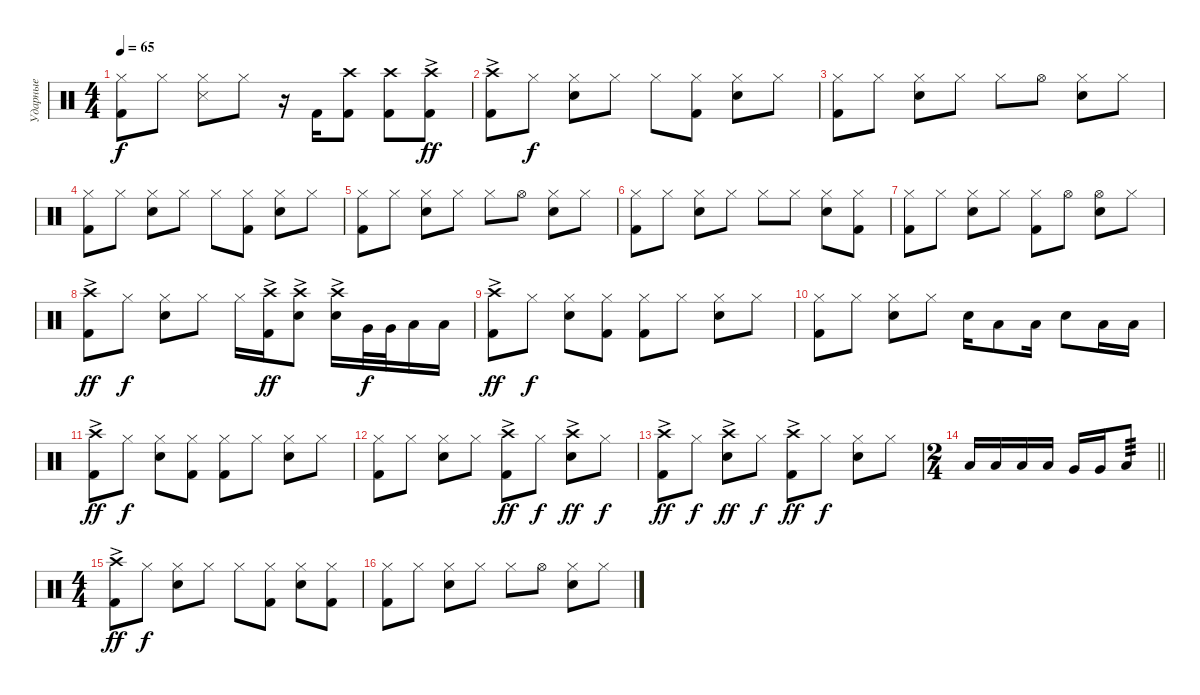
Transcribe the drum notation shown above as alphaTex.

\track ("Ударные" "Ударные") {instrument percussion}
\staff {score}
\articulation defaults
\ts (4 4)
\tempo 65
\clef neutral
\ks c
("Kick (hit) 2" "Hi-Hat (closed)").8{dy f} "Hi-Hat (closed)".8 ("Snare (side stick) 3" "Hi-Hat (closed)").8 "Hi-Hat (closed)".8 r.16 "Kick (hit) 2".16 ("Kick (hit) 2" "Crash high (hit)").8 ("Kick (hit) 2" "Crash high (hit)").8 ("Kick (hit) 2" "Crash high (hit)"{ac}).8{dy ff} |
("Kick (hit) 2" "Crash high (hit)"{ac}).8 "Hi-Hat (closed)".8{dy f} ("Snare (hit) 2" "Hi-Hat (closed)").8 "Hi-Hat (closed)".8 "Hi-Hat (closed)".8 ("Kick (hit) 2" "Hi-Hat (closed)").8 ("Snare (hit) 2" "Hi-Hat (closed)").8 "Hi-Hat (closed)".8 |
("Kick (hit) 2" "Hi-Hat (closed)").8 "Hi-Hat (closed)".8 ("Snare (hit) 2" "Hi-Hat (closed)").8 "Hi-Hat (closed)".8 "Hi-Hat (closed)".8 "Hi-Hat (open)".8 ("Snare (hit) 2" "Hi-Hat (closed)").8 "Hi-Hat (closed)".8 |
("Kick (hit) 2" "Hi-Hat (closed)").8 "Hi-Hat (closed)".8 ("Snare (hit) 2" "Hi-Hat (closed)").8 "Hi-Hat (closed)".8 "Hi-Hat (closed)".8 ("Kick (hit) 2" "Hi-Hat (closed)").8 ("Snare (hit) 2" "Hi-Hat (closed)").8 "Hi-Hat (closed)".8 |
("Kick (hit) 2" "Hi-Hat (closed)").8 "Hi-Hat (closed)".8 ("Snare (hit) 2" "Hi-Hat (closed)").8 "Hi-Hat (closed)".8 "Hi-Hat (closed)".8 "Hi-Hat (open)".8 ("Snare (hit) 2" "Hi-Hat (closed)").8 "Hi-Hat (closed)".8 |
("Kick (hit) 2" "Hi-Hat (closed)").8 "Hi-Hat (closed)".8 ("Snare (hit) 2" "Hi-Hat (closed)").8 "Hi-Hat (closed)".8 "Hi-Hat (closed)".8 "Hi-Hat (closed)".8 ("Snare (hit) 2" "Hi-Hat (closed)").8 ("Kick (hit) 2" "Hi-Hat (closed)").8 |
("Kick (hit) 2" "Hi-Hat (closed)").8 "Hi-Hat (closed)".8 ("Snare (hit) 2" "Hi-Hat (closed)").8 "Hi-Hat (closed)".8 ("Kick (hit) 2" "Hi-Hat (closed)").8 "Hi-Hat (open)".8 ("Snare (hit) 2" "Hi-Hat (open)").8 "Hi-Hat (closed)".8 |
("Kick (hit) 2" "Crash high (hit)"{ac}).8{dy ff} "Hi-Hat (closed)".8{dy f} ("Snare (hit) 2" "Hi-Hat (closed)").8 "Hi-Hat (closed)".8 "Hi-Hat (closed)".16 ("Kick (hit) 2" "Crash high (hit)"{ac}).16{dy ff} ("Snare (hit) 2" "Crash high (hit)"{ac}).8 ("Snare (hit) 2" "Crash high (hit)"{ac}).16 "Very Low Tom (hit)".32{dy f} "Very Low Tom (hit)".32 "Low Floor Tom (hit)".16 "Low Floor Tom (hit)".16 |
("Kick (hit) 2" "Crash high (hit)"{ac}).8{dy ff} "Hi-Hat (closed)".8{dy f} ("Snare (hit) 2" "Hi-Hat (closed)").8 ("Kick (hit) 2" "Hi-Hat (closed)").8 ("Kick (hit) 2" "Hi-Hat (closed)").8 "Hi-Hat (closed)".8 ("Snare (hit) 2" "Hi-Hat (closed)").8 "Hi-Hat (closed)".8 |
("Kick (hit) 2" "Hi-Hat (closed)").8 "Hi-Hat (closed)".8 ("Snare (hit) 2" "Hi-Hat (closed)").8 "Hi-Hat (closed)".8 "Snare (hit) 2".16 "Low Tom (hit)".8 "Low Tom (hit)".16 "Snare (hit) 2".8 "Low Floor Tom (hit)".16 "Low Floor Tom (hit)".16 |
("Kick (hit) 2" "Crash high (hit)"{ac}).8{dy ff} "Hi-Hat (closed)".8{dy f} ("Snare (hit) 2" "Hi-Hat (closed)").8 ("Kick (hit) 2" "Hi-Hat (closed)").8 ("Kick (hit) 2" "Hi-Hat (closed)").8 "Hi-Hat (closed)".8 ("Snare (hit) 2" "Hi-Hat (closed)").8 "Hi-Hat (closed)".8 |
("Kick (hit) 2" "Hi-Hat (closed)").8 "Hi-Hat (closed)".8 ("Snare (hit) 2" "Hi-Hat (closed)").8 "Hi-Hat (closed)".8 ("Kick (hit) 2" "Crash high (hit)"{ac}).8{dy ff} "Hi-Hat (closed)".8{dy f} ("Snare (hit) 2" "Crash high (hit)"{ac}).8{dy ff} "Hi-Hat (closed)".8{dy f} |
("Kick (hit) 2" "Crash high (hit)"{ac}).8{dy ff} "Hi-Hat (closed)".8{dy f} ("Snare (hit) 2" "Crash high (hit)"{ac}).8{dy ff} "Hi-Hat (closed)".8{dy f} ("Kick (hit) 2" "Crash high (hit)"{ac}).8{dy ff} "Hi-Hat (closed)".8{dy f} ("Snare (hit) 2" "Hi-Hat (closed)").8 "Hi-Hat (closed)".8 |
\ts (2 4)
\barLineRight lightlight "Low Tom (hit)".16 "Low Tom (hit)".16 "Low Tom (hit)".16 "Low Tom (hit)".16 "Very Low Tom (hit)".16 "Very Low Tom (hit)".16 "Low Floor Tom (hit)".8{tp 3}
|
\ts (4 4)
("Kick (hit) 2" "Crash high (hit)"{ac}).8{dy ff} "Hi-Hat (closed)".8{dy f} ("Snare (hit) 2" "Hi-Hat (closed)").8 "Hi-Hat (closed)".8 "Hi-Hat (closed)".8 ("Kick (hit) 2" "Hi-Hat (closed)").8 ("Snare (hit) 2" "Hi-Hat (closed)").8 ("Kick (hit) 2" "Hi-Hat (closed)").8 |
("Kick (hit) 2" "Hi-Hat (closed)").8 "Hi-Hat (closed)".8 ("Snare (hit) 2" "Hi-Hat (closed)").8 "Hi-Hat (closed)".8 "Hi-Hat (closed)".8 "Hi-Hat (open)".8 ("Snare (hit) 2" "Hi-Hat (closed)").8 "Hi-Hat (closed)".8
